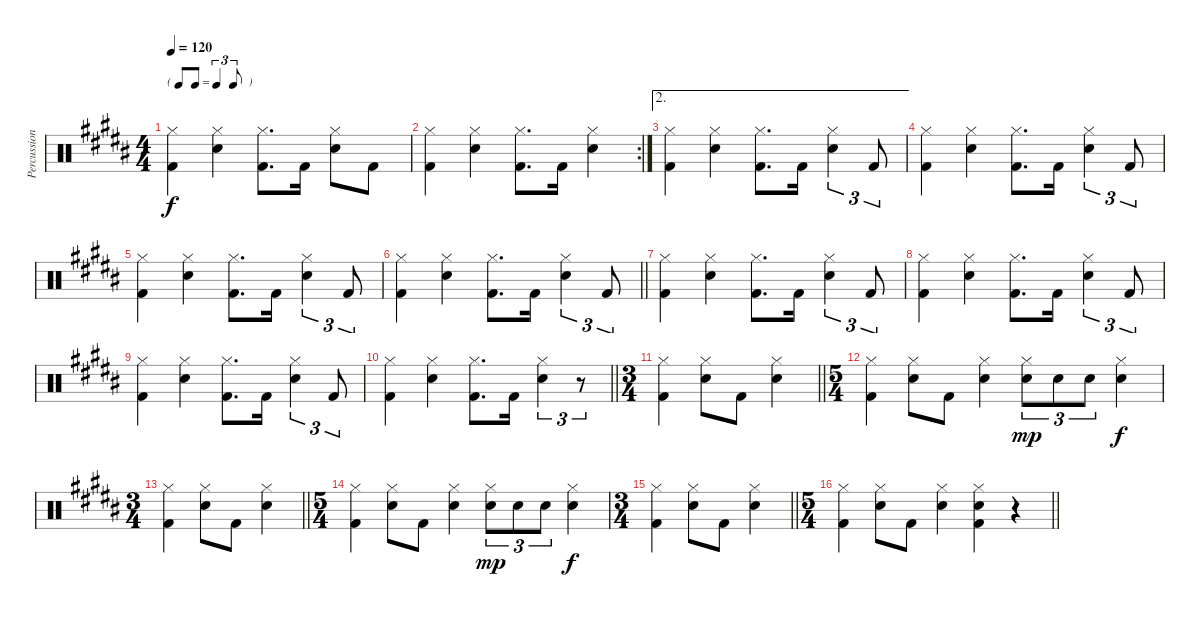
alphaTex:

\track ("Percussion" "Percussion") {instrument percussion}
\staff {score}
\articulation defaults
\ts (4 4)
\tf triplet8th
\tempo 120
\clef neutral
\ks b
("Hi-Hat (closed)" "Kick (hit) 2").4{dy f} ("Hi-Hat (closed)" "Snare (hit) 2").4 ("Hi-Hat (closed)" "Kick (hit) 2").8{d} "Kick (hit) 2".16 ("Hi-Hat (closed)" "Snare (hit) 2").8 "Kick (hit) 2".8 |
\rc 2
("Hi-Hat (closed)" "Kick (hit) 2").4 ("Hi-Hat (closed)" "Snare (hit) 2").4 ("Hi-Hat (closed)" "Kick (hit) 2").8{d} "Kick (hit) 2".16 ("Hi-Hat (closed)" "Snare (hit) 2").4 |
\ae 2
("Hi-Hat (closed)" "Kick (hit) 2").4 ("Hi-Hat (closed)" "Snare (hit) 2").4 ("Hi-Hat (closed)" "Kick (hit) 2").8{d} "Kick (hit) 2".16 ("Hi-Hat (closed)" "Snare (hit) 2").4{tu (3 2)} "Kick (hit) 2".8{tu (3 2)} |
("Hi-Hat (closed)" "Kick (hit) 2").4 ("Hi-Hat (closed)" "Snare (hit) 2").4 ("Hi-Hat (closed)" "Kick (hit) 2").8{d} "Kick (hit) 2".16 ("Hi-Hat (closed)" "Snare (hit) 2").4{tu (3 2)} "Kick (hit) 2".8{tu (3 2)} |
("Hi-Hat (closed)" "Kick (hit) 2").4 ("Hi-Hat (closed)" "Snare (hit) 2").4 ("Hi-Hat (closed)" "Kick (hit) 2").8{d} "Kick (hit) 2".16 ("Hi-Hat (closed)" "Snare (hit) 2").4{tu (3 2)} "Kick (hit) 2".8{tu (3 2)} |
\barLineRight lightlight
("Hi-Hat (closed)" "Kick (hit) 2").4 ("Hi-Hat (closed)" "Snare (hit) 2").4 ("Hi-Hat (closed)" "Kick (hit) 2").8{d} "Kick (hit) 2".16 ("Hi-Hat (closed)" "Snare (hit) 2").4{tu (3 2)} "Kick (hit) 2".8{tu (3 2)} |
("Hi-Hat (closed)" "Kick (hit) 2").4 ("Hi-Hat (closed)" "Snare (hit) 2").4 ("Hi-Hat (closed)" "Kick (hit) 2").8{d} "Kick (hit) 2".16 ("Hi-Hat (closed)" "Snare (hit) 2").4{tu (3 2)} "Kick (hit) 2".8{tu (3 2)} |
("Hi-Hat (closed)" "Kick (hit) 2").4 ("Hi-Hat (closed)" "Snare (hit) 2").4 ("Hi-Hat (closed)" "Kick (hit) 2").8{d} "Kick (hit) 2".16 ("Hi-Hat (closed)" "Snare (hit) 2").4{tu (3 2)} "Kick (hit) 2".8{tu (3 2)} |
("Hi-Hat (closed)" "Kick (hit) 2").4 ("Hi-Hat (closed)" "Snare (hit) 2").4 ("Hi-Hat (closed)" "Kick (hit) 2").8{d} "Kick (hit) 2".16 ("Hi-Hat (closed)" "Snare (hit) 2").4{tu (3 2)} "Kick (hit) 2".8{tu (3 2)} |
\barLineRight lightlight
("Hi-Hat (closed)" "Kick (hit) 2").4 ("Hi-Hat (closed)" "Snare (hit) 2").4 ("Hi-Hat (closed)" "Kick (hit) 2").8{d} "Kick (hit) 2".16 ("Hi-Hat (closed)" "Snare (hit) 2").4{tu (3 2)} r.8{tu (3 2)} |
\ts (3 4)
\barLineRight lightlight
("Hi-Hat (closed)" "Kick (hit) 2").4 ("Hi-Hat (closed)" "Snare (hit) 2").8 "Kick (hit) 2".8 ("Hi-Hat (closed)" "Snare (hit) 2").4 |
\ts (5 4)
("Hi-Hat (closed)" "Kick (hit) 2").4 ("Hi-Hat (closed)" "Snare (hit) 2").8 "Kick (hit) 2".8 ("Hi-Hat (closed)" "Snare (hit) 2").4 ("Hi-Hat (closed)" "Snare (hit) 2").8{tu (3 2) dy mp} "Snare (hit) 2".8{tu (3 2)} "Snare (hit) 2".8{tu (3 2)} ("Hi-Hat (closed)" "Snare (hit) 2").4{dy f} |
\ts (3 4)
\barLineRight lightlight
("Hi-Hat (closed)" "Kick (hit) 2").4 ("Hi-Hat (closed)" "Snare (hit) 2").8 "Kick (hit) 2".8 ("Hi-Hat (closed)" "Snare (hit) 2").4 |
\ts (5 4)
("Hi-Hat (closed)" "Kick (hit) 2").4 ("Hi-Hat (closed)" "Snare (hit) 2").8 "Kick (hit) 2".8 ("Hi-Hat (closed)" "Snare (hit) 2").4 ("Hi-Hat (closed)" "Snare (hit) 2").8{tu (3 2) dy mp} "Snare (hit) 2".8{tu (3 2)} "Snare (hit) 2".8{tu (3 2)} ("Hi-Hat (closed)" "Snare (hit) 2").4{dy f} |
\ts (3 4)
\barLineRight lightlight
("Hi-Hat (closed)" "Kick (hit) 2").4 ("Hi-Hat (closed)" "Snare (hit) 2").8 "Kick (hit) 2".8 ("Hi-Hat (closed)" "Snare (hit) 2").4 |
\ts (5 4)
\barLineRight lightlight
("Hi-Hat (closed)" "Kick (hit) 2").4 ("Hi-Hat (closed)" "Snare (hit) 2").8 "Kick (hit) 2".8 ("Hi-Hat (closed)" "Snare (hit) 2").4 ("Hi-Hat (closed)" "Snare (hit) 2" "Kick (hit) 2").4 r.4
